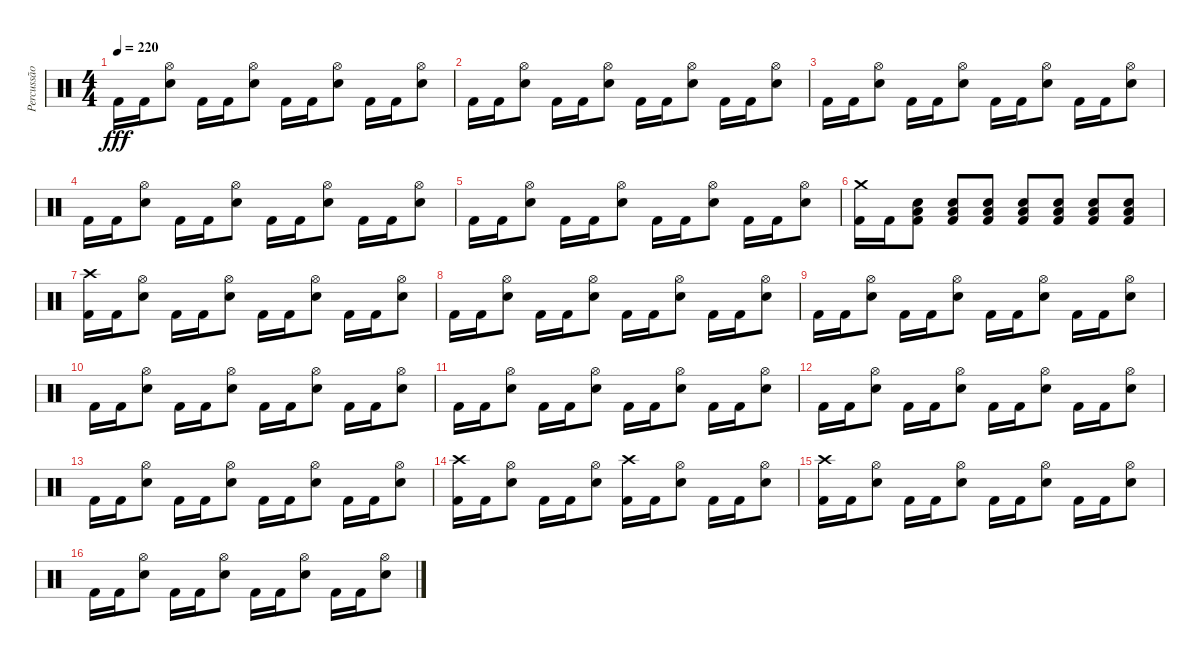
\track ("Percussão" "Percussão") {instrument percussion}
\staff {score}
\articulation defaults
\ts (4 4)
\tempo 220
\clef neutral
\ks c "Kick (hit) 2".16{dy fff} "Kick (hit) 2".16
("Hi-Hat (open)" "Electric Snare (hit)").8 "Kick (hit) 2".16 "Kick (hit) 2".16 ("Hi-Hat (open)" "Electric Snare (hit)").8 "Kick (hit) 2".16 "Kick (hit) 2".16 ("Hi-Hat (open)" "Electric Snare (hit)").8 "Kick (hit) 2".16 "Kick (hit) 2".16 ("Hi-Hat (open)" "Electric Snare (hit)").8 |
"Kick (hit) 2".16 "Kick (hit) 2".16 ("Hi-Hat (open)" "Electric Snare (hit)").8 "Kick (hit) 2".16 "Kick (hit) 2".16 ("Hi-Hat (open)" "Electric Snare (hit)").8 "Kick (hit) 2".16 "Kick (hit) 2".16 ("Hi-Hat (open)" "Electric Snare (hit)").8 "Kick (hit) 2".16 "Kick (hit) 2".16 ("Hi-Hat (open)" "Electric Snare (hit)").8 |
"Kick (hit) 2".16 "Kick (hit) 2".16 ("Hi-Hat (open)" "Electric Snare (hit)").8 "Kick (hit) 2".16 "Kick (hit) 2".16 ("Hi-Hat (open)" "Electric Snare (hit)").8 "Kick (hit) 2".16 "Kick (hit) 2".16 ("Hi-Hat (open)" "Electric Snare (hit)").8 "Kick (hit) 2".16 "Kick (hit) 2".16 ("Hi-Hat (open)" "Electric Snare (hit)").8 |
"Kick (hit) 2".16 "Kick (hit) 2".16 ("Hi-Hat (open)" "Electric Snare (hit)").8 "Kick (hit) 2".16 "Kick (hit) 2".16 ("Hi-Hat (open)" "Electric Snare (hit)").8 "Kick (hit) 2".16 "Kick (hit) 2".16 ("Hi-Hat (open)" "Electric Snare (hit)").8 "Kick (hit) 2".16 "Kick (hit) 2".16 ("Hi-Hat (open)" "Electric Snare (hit)").8 |
"Kick (hit) 2".16 "Kick (hit) 2".16 ("Hi-Hat (open)" "Electric Snare (hit)").8 "Kick (hit) 2".16 "Kick (hit) 2".16 ("Hi-Hat (open)" "Electric Snare (hit)").8 "Kick (hit) 2".16 "Kick (hit) 2".16 ("Hi-Hat (open)" "Electric Snare (hit)").8 "Kick (hit) 2".16 "Kick (hit) 2".16 ("Hi-Hat (open)" "Electric Snare (hit)").8 |
("Crash medium (hit)" "Kick (hit) 2").16 "Kick (hit) 2".16 ("Kick (hit) 2" "Low Tom (hit)" "Electric Snare (hit)").8 ("Kick (hit) 2" "Low Tom (hit)" "Electric Snare (hit)").8 ("Kick (hit) 2" "Low Tom (hit)" "Electric Snare (hit)").8 ("Kick (hit) 2" "Low Tom (hit)" "Electric Snare (hit)").8 ("Kick (hit) 2" "Low Tom (hit)" "Electric Snare (hit)").8 ("Kick (hit) 2" "Low Tom (hit)" "Electric Snare (hit)").8 ("Kick (hit) 2" "Low Tom (hit)" "Electric Snare (hit)").8 |
("Crash high (hit)" "Kick (hit) 2").16 "Kick (hit) 2".16 ("Hi-Hat (open)" "Electric Snare (hit)").8 "Kick (hit) 2".16 "Kick (hit) 2".16 ("Hi-Hat (open)" "Electric Snare (hit)").8 "Kick (hit) 2".16 "Kick (hit) 2".16 ("Hi-Hat (open)" "Electric Snare (hit)").8 "Kick (hit) 2".16 "Kick (hit) 2".16 ("Hi-Hat (open)" "Electric Snare (hit)").8 |
"Kick (hit) 2".16 "Kick (hit) 2".16 ("Hi-Hat (open)" "Electric Snare (hit)").8 "Kick (hit) 2".16 "Kick (hit) 2".16 ("Hi-Hat (open)" "Electric Snare (hit)").8 "Kick (hit) 2".16 "Kick (hit) 2".16 ("Hi-Hat (open)" "Electric Snare (hit)").8 "Kick (hit) 2".16 "Kick (hit) 2".16 ("Hi-Hat (open)" "Electric Snare (hit)").8 |
"Kick (hit) 2".16 "Kick (hit) 2".16 ("Hi-Hat (open)" "Electric Snare (hit)").8 "Kick (hit) 2".16 "Kick (hit) 2".16 ("Hi-Hat (open)" "Electric Snare (hit)").8 "Kick (hit) 2".16 "Kick (hit) 2".16 ("Hi-Hat (open)" "Electric Snare (hit)").8 "Kick (hit) 2".16 "Kick (hit) 2".16 ("Hi-Hat (open)" "Electric Snare (hit)").8 |
"Kick (hit) 2".16 "Kick (hit) 2".16 ("Hi-Hat (open)" "Electric Snare (hit)").8 "Kick (hit) 2".16 "Kick (hit) 2".16 ("Hi-Hat (open)" "Electric Snare (hit)").8 "Kick (hit) 2".16 "Kick (hit) 2".16 ("Hi-Hat (open)" "Electric Snare (hit)").8 "Kick (hit) 2".16 "Kick (hit) 2".16 ("Hi-Hat (open)" "Electric Snare (hit)").8 |
"Kick (hit) 2".16 "Kick (hit) 2".16 ("Hi-Hat (open)" "Electric Snare (hit)").8 "Kick (hit) 2".16 "Kick (hit) 2".16 ("Hi-Hat (open)" "Electric Snare (hit)").8 "Kick (hit) 2".16 "Kick (hit) 2".16 ("Hi-Hat (open)" "Electric Snare (hit)").8 "Kick (hit) 2".16 "Kick (hit) 2".16 ("Hi-Hat (open)" "Electric Snare (hit)").8 |
"Kick (hit) 2".16 "Kick (hit) 2".16 ("Hi-Hat (open)" "Electric Snare (hit)").8 "Kick (hit) 2".16 "Kick (hit) 2".16 ("Hi-Hat (open)" "Electric Snare (hit)").8 "Kick (hit) 2".16 "Kick (hit) 2".16 ("Hi-Hat (open)" "Electric Snare (hit)").8 "Kick (hit) 2".16 "Kick (hit) 2".16 ("Hi-Hat (open)" "Electric Snare (hit)").8 |
"Kick (hit) 2".16 "Kick (hit) 2".16 ("Hi-Hat (open)" "Electric Snare (hit)").8 "Kick (hit) 2".16 "Kick (hit) 2".16 ("Hi-Hat (open)" "Electric Snare (hit)").8 "Kick (hit) 2".16 "Kick (hit) 2".16 ("Hi-Hat (open)" "Electric Snare (hit)").8 "Kick (hit) 2".16 "Kick (hit) 2".16 ("Hi-Hat (open)" "Electric Snare (hit)").8 |
("Crash high (hit)" "Kick (hit) 2").16 "Kick (hit) 2".16 ("Hi-Hat (open)" "Electric Snare (hit)").8 "Kick (hit) 2".16 "Kick (hit) 2".16 ("Hi-Hat (open)" "Electric Snare (hit)").8 ("Crash high (hit)" "Kick (hit) 2").16 "Kick (hit) 2".16 ("Hi-Hat (open)" "Electric Snare (hit)").8 "Kick (hit) 2".16 "Kick (hit) 2".16 ("Hi-Hat (open)" "Electric Snare (hit)").8 |
("Crash high (hit)" "Kick (hit) 2").16 "Kick (hit) 2".16 ("Hi-Hat (open)" "Electric Snare (hit)").8 "Kick (hit) 2".16 "Kick (hit) 2".16 ("Hi-Hat (open)" "Electric Snare (hit)").8 "Kick (hit) 2".16 "Kick (hit) 2".16 ("Hi-Hat (open)" "Electric Snare (hit)").8 "Kick (hit) 2".16 "Kick (hit) 2".16 ("Hi-Hat (open)" "Electric Snare (hit)").8 |
"Kick (hit) 2".16 "Kick (hit) 2".16 ("Hi-Hat (open)" "Electric Snare (hit)").8 "Kick (hit) 2".16 "Kick (hit) 2".16 ("Hi-Hat (open)" "Electric Snare (hit)").8 "Kick (hit) 2".16 "Kick (hit) 2".16 ("Hi-Hat (open)" "Electric Snare (hit)").8 "Kick (hit) 2".16 "Kick (hit) 2".16 ("Hi-Hat (open)" "Electric Snare (hit)").8
